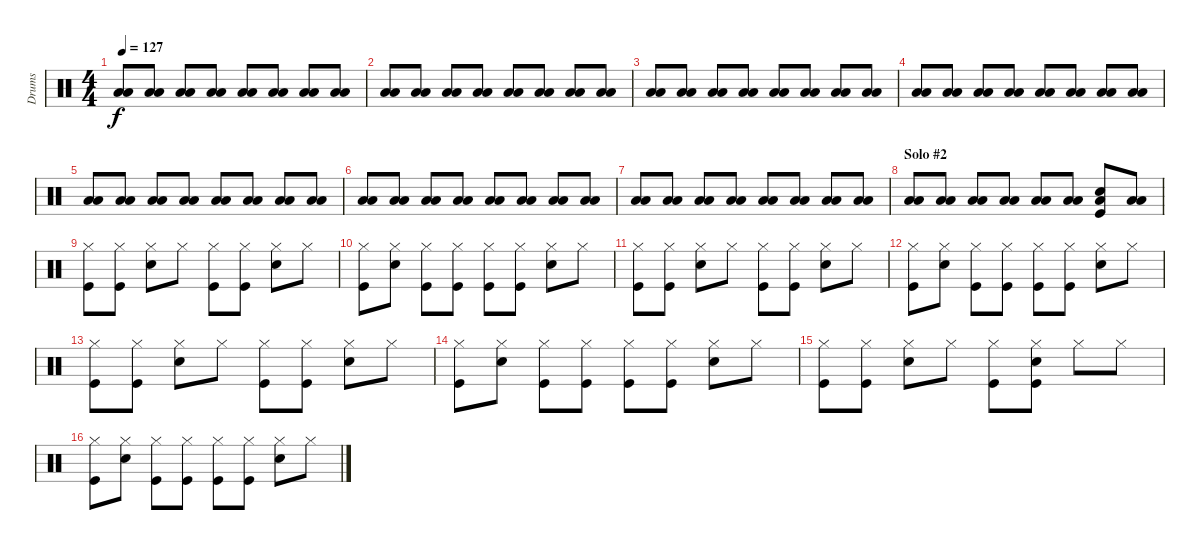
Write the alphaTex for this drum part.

\track ("Drums" "Drums") {instrument percussion}
\staff {score}
\articulation defaults
\ts (4 4)
\tempo 127
\clef neutral
\ks c
("Low Tom (hit)" "Low Tom (hit)").8{dy f} ("Low Tom (hit)" "Low Tom (hit)").8 ("Low Tom (hit)" "Low Tom (hit)").8 ("Low Tom (hit)" "Low Tom (hit)").8 ("Low Tom (hit)" "Low Tom (hit)").8 ("Low Tom (hit)" "Low Tom (hit)").8 ("Low Tom (hit)" "Low Tom (hit)").8 ("Low Tom (hit)" "Low Tom (hit)").8 |
("Low Tom (hit)" "Low Tom (hit)").8 ("Low Tom (hit)" "Low Tom (hit)").8 ("Low Tom (hit)" "Low Tom (hit)").8 ("Low Tom (hit)" "Low Tom (hit)").8 ("Low Tom (hit)" "Low Tom (hit)").8 ("Low Tom (hit)" "Low Tom (hit)").8 ("Low Tom (hit)" "Low Tom (hit)").8 ("Low Tom (hit)" "Low Tom (hit)").8 |
("Low Tom (hit)" "Low Tom (hit)").8 ("Low Tom (hit)" "Low Tom (hit)").8 ("Low Tom (hit)" "Low Tom (hit)").8 ("Low Tom (hit)" "Low Tom (hit)").8 ("Low Tom (hit)" "Low Tom (hit)").8 ("Low Tom (hit)" "Low Tom (hit)").8 ("Low Tom (hit)" "Low Tom (hit)").8 ("Low Tom (hit)" "Low Tom (hit)").8 |
("Low Tom (hit)" "Low Tom (hit)").8 ("Low Tom (hit)" "Low Tom (hit)").8 ("Low Tom (hit)" "Low Tom (hit)").8 ("Low Tom (hit)" "Low Tom (hit)").8 ("Low Tom (hit)" "Low Tom (hit)").8 ("Low Tom (hit)" "Low Tom (hit)").8 ("Low Tom (hit)" "Low Tom (hit)").8 ("Low Tom (hit)" "Low Tom (hit)").8 |
("Low Tom (hit)" "Low Tom (hit)").8 ("Low Tom (hit)" "Low Tom (hit)").8 ("Low Tom (hit)" "Low Tom (hit)").8 ("Low Tom (hit)" "Low Tom (hit)").8 ("Low Tom (hit)" "Low Tom (hit)").8 ("Low Tom (hit)" "Low Tom (hit)").8 ("Low Tom (hit)" "Low Tom (hit)").8 ("Low Tom (hit)" "Low Tom (hit)").8 |
("Low Tom (hit)" "Low Tom (hit)").8 ("Low Tom (hit)" "Low Tom (hit)").8 ("Low Tom (hit)" "Low Tom (hit)").8 ("Low Tom (hit)" "Low Tom (hit)").8 ("Low Tom (hit)" "Low Tom (hit)").8 ("Low Tom (hit)" "Low Tom (hit)").8 ("Low Tom (hit)" "Low Tom (hit)").8 ("Low Tom (hit)" "Low Tom (hit)").8 |
("Low Tom (hit)" "Low Tom (hit)").8 ("Low Tom (hit)" "Low Tom (hit)").8 ("Low Tom (hit)" "Low Tom (hit)").8 ("Low Tom (hit)" "Low Tom (hit)").8 ("Low Tom (hit)" "Low Tom (hit)").8 ("Low Tom (hit)" "Low Tom (hit)").8 ("Low Tom (hit)" "Low Tom (hit)").8 ("Low Tom (hit)" "Low Tom (hit)").8 |
\section ("" "Solo #2")
("Low Tom (hit)" "Low Tom (hit)").8 ("Low Tom (hit)" "Low Tom (hit)").8 ("Low Tom (hit)" "Low Tom (hit)").8 ("Low Tom (hit)" "Low Tom (hit)").8 ("Low Tom (hit)" "Low Tom (hit)").8 ("Low Tom (hit)" "Low Tom (hit)").8 ("Electric Snare (hit)" "Low Tom (hit)" "Kick (hit)").8 ("Low Tom (hit)" "Low Tom (hit)").8 |
("Hi-Hat (closed)" "Kick (hit)").8 ("Hi-Hat (closed)" "Kick (hit)").8 ("Hi-Hat (closed)" "Electric Snare (hit)").8 "Hi-Hat (closed)".8 ("Hi-Hat (closed)" "Kick (hit)").8 ("Hi-Hat (closed)" "Kick (hit)").8 ("Hi-Hat (closed)" "Electric Snare (hit)").8 "Hi-Hat (closed)".8 |
("Hi-Hat (closed)" "Kick (hit)").8 ("Hi-Hat (closed)" "Electric Snare (hit)").8 ("Hi-Hat (closed)" "Kick (hit)").8 ("Hi-Hat (closed)" "Kick (hit)").8 ("Hi-Hat (closed)" "Kick (hit)").8 ("Hi-Hat (closed)" "Kick (hit)").8 ("Hi-Hat (closed)" "Electric Snare (hit)").8 "Hi-Hat (closed)".8 |
("Hi-Hat (closed)" "Kick (hit)").8 ("Hi-Hat (closed)" "Kick (hit)").8 ("Hi-Hat (closed)" "Electric Snare (hit)").8 "Hi-Hat (closed)".8 ("Hi-Hat (closed)" "Kick (hit)").8 ("Hi-Hat (closed)" "Kick (hit)").8 ("Hi-Hat (closed)" "Electric Snare (hit)").8 "Hi-Hat (closed)".8 |
("Hi-Hat (closed)" "Kick (hit)").8 ("Hi-Hat (closed)" "Electric Snare (hit)").8 ("Hi-Hat (closed)" "Kick (hit)").8 ("Hi-Hat (closed)" "Kick (hit)").8 ("Hi-Hat (closed)" "Kick (hit)").8 ("Hi-Hat (closed)" "Kick (hit)").8 ("Hi-Hat (closed)" "Electric Snare (hit)").8 "Hi-Hat (closed)".8 |
("Hi-Hat (closed)" "Kick (hit)").8 ("Hi-Hat (closed)" "Kick (hit)").8 ("Hi-Hat (closed)" "Electric Snare (hit)").8 "Hi-Hat (closed)".8 ("Hi-Hat (closed)" "Kick (hit)").8 ("Hi-Hat (closed)" "Kick (hit)").8 ("Hi-Hat (closed)" "Electric Snare (hit)").8 "Hi-Hat (closed)".8 |
("Hi-Hat (closed)" "Kick (hit)").8 ("Hi-Hat (closed)" "Electric Snare (hit)").8 ("Hi-Hat (closed)" "Kick (hit)").8 ("Hi-Hat (closed)" "Kick (hit)").8 ("Hi-Hat (closed)" "Kick (hit)").8 ("Hi-Hat (closed)" "Kick (hit)").8 ("Hi-Hat (closed)" "Electric Snare (hit)").8 "Hi-Hat (closed)".8 |
("Hi-Hat (closed)" "Kick (hit)").8 ("Hi-Hat (closed)" "Kick (hit)").8 ("Hi-Hat (closed)" "Electric Snare (hit)").8 "Hi-Hat (closed)".8 ("Hi-Hat (closed)" "Kick (hit)").8 ("Hi-Hat (closed)" "Electric Snare (hit)" "Kick (hit)").8 "Hi-Hat (closed)".8 "Hi-Hat (closed)".8 |
("Hi-Hat (closed)" "Kick (hit)").8 ("Hi-Hat (closed)" "Electric Snare (hit)").8 ("Hi-Hat (closed)" "Kick (hit)").8 ("Hi-Hat (closed)" "Kick (hit)").8 ("Hi-Hat (closed)" "Kick (hit)").8 ("Hi-Hat (closed)" "Kick (hit)").8 ("Hi-Hat (closed)" "Electric Snare (hit)").8 "Hi-Hat (closed)".8
